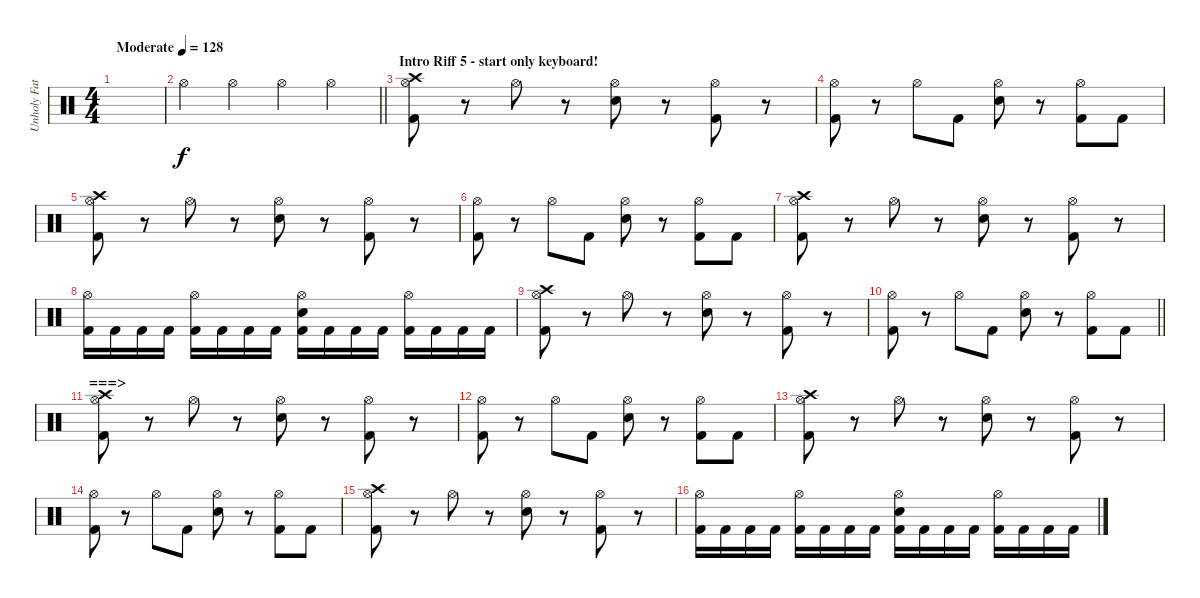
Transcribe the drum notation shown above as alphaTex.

\track ("Unholy Father" "Unholy Fat") {instrument percussion}
\staff {score}
\articulation defaults
\ts (4 4)
\tempo (128 "Moderate")
\clef neutral
\ks c
|
\barLineRight lightlight "Hi-Hat (open)".4 "Hi-Hat (open)".4 "Hi-Hat (open)".4 "Hi-Hat (open)".4
|
\section ("" "Intro Riff 5 - start only keyboard!")
("Crash high (hit)" "Hi-Hat (open)" "Kick (hit) 2").8 r.8 "Hi-Hat (open)".8 r.8 ("Hi-Hat (open)" "Snare (hit) 2").8 r.8 ("Hi-Hat (open)" "Kick (hit) 2").8 r.8 |
("Hi-Hat (open)" "Kick (hit) 2").8 r.8 "Hi-Hat (open)".8 "Kick (hit) 2".8 ("Hi-Hat (open)" "Snare (hit) 2").8 r.8 ("Hi-Hat (open)" "Kick (hit) 2").8 "Kick (hit) 2".8 |
("Crash high (hit)" "Hi-Hat (open)" "Kick (hit) 2").8 r.8 "Hi-Hat (open)".8 r.8 ("Hi-Hat (open)" "Snare (hit) 2").8 r.8 ("Hi-Hat (open)" "Kick (hit) 2").8 r.8 |
("Hi-Hat (open)" "Kick (hit) 2").8 r.8 "Hi-Hat (open)".8 "Kick (hit) 2".8 ("Hi-Hat (open)" "Snare (hit) 2").8 r.8 ("Hi-Hat (open)" "Kick (hit) 2").8 "Kick (hit) 2".8 |
("Crash high (hit)" "Hi-Hat (open)" "Kick (hit) 2").8 r.8 "Hi-Hat (open)".8 r.8 ("Hi-Hat (open)" "Snare (hit) 2").8 r.8 ("Hi-Hat (open)" "Kick (hit) 2").8 r.8 |
("Hi-Hat (open)" "Kick (hit) 2").16 "Kick (hit) 2".16 "Kick (hit) 2".16 "Kick (hit) 2".16 ("Hi-Hat (open)" "Kick (hit) 2").16 "Kick (hit) 2".16 "Kick (hit) 2".16 "Kick (hit) 2".16 ("Hi-Hat (open)" "Snare (hit) 2" "Kick (hit) 2").16 "Kick (hit) 2".16 "Kick (hit) 2".16 "Kick (hit) 2".16 ("Hi-Hat (open)" "Kick (hit) 2").16 "Kick (hit) 2".16 "Kick (hit) 2".16 "Kick (hit) 2".16 |
("Crash high (hit)" "Hi-Hat (open)" "Kick (hit) 2").8 r.8 "Hi-Hat (open)".8 r.8 ("Hi-Hat (open)" "Snare (hit) 2").8 r.8 ("Hi-Hat (open)" "Kick (hit) 2").8 r.8 |
\barLineRight lightlight
("Hi-Hat (open)" "Kick (hit) 2").8 r.8 "Hi-Hat (open)".8 "Kick (hit) 2".8 ("Hi-Hat (open)" "Snare (hit) 2").8 r.8 ("Hi-Hat (open)" "Kick (hit) 2").8 "Kick (hit) 2".8 |
\section ("" "===>")
("Crash high (hit)" "Hi-Hat (open)" "Kick (hit) 2").8 r.8 "Hi-Hat (open)".8 r.8 ("Hi-Hat (open)" "Snare (hit) 2").8 r.8 ("Hi-Hat (open)" "Kick (hit) 2").8 r.8 |
("Hi-Hat (open)" "Kick (hit) 2").8 r.8 "Hi-Hat (open)".8 "Kick (hit) 2".8 ("Hi-Hat (open)" "Snare (hit) 2").8 r.8 ("Hi-Hat (open)" "Kick (hit) 2").8 "Kick (hit) 2".8 |
("Crash high (hit)" "Hi-Hat (open)" "Kick (hit) 2").8 r.8 "Hi-Hat (open)".8 r.8 ("Hi-Hat (open)" "Snare (hit) 2").8 r.8 ("Hi-Hat (open)" "Kick (hit) 2").8 r.8 |
("Hi-Hat (open)" "Kick (hit) 2").8 r.8 "Hi-Hat (open)".8 "Kick (hit) 2".8 ("Hi-Hat (open)" "Snare (hit) 2").8 r.8 ("Hi-Hat (open)" "Kick (hit) 2").8 "Kick (hit) 2".8 |
("Crash high (hit)" "Hi-Hat (open)" "Kick (hit) 2").8 r.8 "Hi-Hat (open)".8 r.8 ("Hi-Hat (open)" "Snare (hit) 2").8 r.8 ("Hi-Hat (open)" "Kick (hit) 2").8 r.8 |
("Hi-Hat (open)" "Kick (hit) 2").16 "Kick (hit) 2".16 "Kick (hit) 2".16 "Kick (hit) 2".16 ("Hi-Hat (open)" "Kick (hit) 2").16 "Kick (hit) 2".16 "Kick (hit) 2".16 "Kick (hit) 2".16 ("Hi-Hat (open)" "Snare (hit) 2" "Kick (hit) 2").16 "Kick (hit) 2".16 "Kick (hit) 2".16 "Kick (hit) 2".16 ("Hi-Hat (open)" "Kick (hit) 2").16 "Kick (hit) 2".16 "Kick (hit) 2".16 "Kick (hit) 2".16
